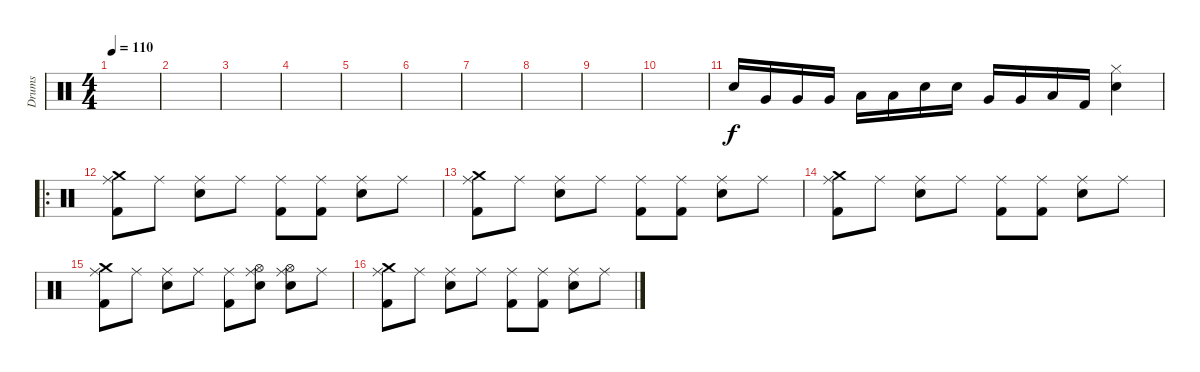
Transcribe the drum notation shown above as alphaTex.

\track ("Drums" "Drums") {instrument percussion}
\staff {score}
\articulation defaults
\ts (4 4)
\tempo 110
\clef neutral
\ks aminor
|
|
|
|
|
|
|
|
|
|
"Electric Snare (hit)".16 "Very Low Tom (hit)".16 "Very Low Tom (hit)".16 "Very Low Tom (hit)".16 "Low Floor Tom (hit)".16 "Low Floor Tom (hit)".16 "Electric Snare (hit)".16 "Electric Snare (hit)".16 "Very Low Tom (hit)".16 "Very Low Tom (hit)".16 "Low Floor Tom (hit)".16 "Kick (hit) 2".16 ("Hi-Hat (closed)" "Electric Snare (hit)").4 |
\ro
("Crash medium (hit)" "Ride (middle)" "Kick (hit) 2").8 "Ride (middle)".8 ("Ride (middle)" "Electric Snare (hit)").8 "Ride (middle)".8 ("Ride (middle)" "Kick (hit) 2").8 ("Ride (middle)" "Kick (hit) 2").8 ("Ride (middle)" "Electric Snare (hit)").8 "Ride (middle)".8 |
("Crash medium (hit)" "Ride (middle)" "Kick (hit) 2").8 "Ride (middle)".8 ("Ride (middle)" "Electric Snare (hit)").8 "Ride (middle)".8 ("Ride (middle)" "Kick (hit) 2").8 ("Ride (middle)" "Kick (hit) 2").8 ("Ride (middle)" "Electric Snare (hit)").8 "Ride (middle)".8 |
("Crash medium (hit)" "Ride (middle)" "Kick (hit) 2").8 "Ride (middle)".8 ("Ride (middle)" "Electric Snare (hit)").8 "Ride (middle)".8 ("Ride (middle)" "Kick (hit) 2").8 ("Ride (middle)" "Kick (hit) 2").8 ("Ride (middle)" "Electric Snare (hit)").8 "Ride (middle)".8 |
("Crash medium (hit)" "Ride (middle)" "Kick (hit) 2").8 "Ride (middle)".8 ("Ride (middle)" "Electric Snare (hit)").8 "Ride (middle)".8 ("Ride (middle)" "Kick (hit) 2").8 ("Ride (middle)" "Hi-Hat (open)" "Electric Snare (hit)").8 ("Ride (middle)" "Hi-Hat (open)" "Electric Snare (hit)").8 "Ride (middle)".8 |
("Crash medium (hit)" "Ride (middle)" "Kick (hit) 2").8 "Ride (middle)".8 ("Ride (middle)" "Electric Snare (hit)").8 "Ride (middle)".8 ("Ride (middle)" "Kick (hit) 2").8 ("Ride (middle)" "Kick (hit) 2").8 ("Ride (middle)" "Electric Snare (hit)").8 "Ride (middle)".8
